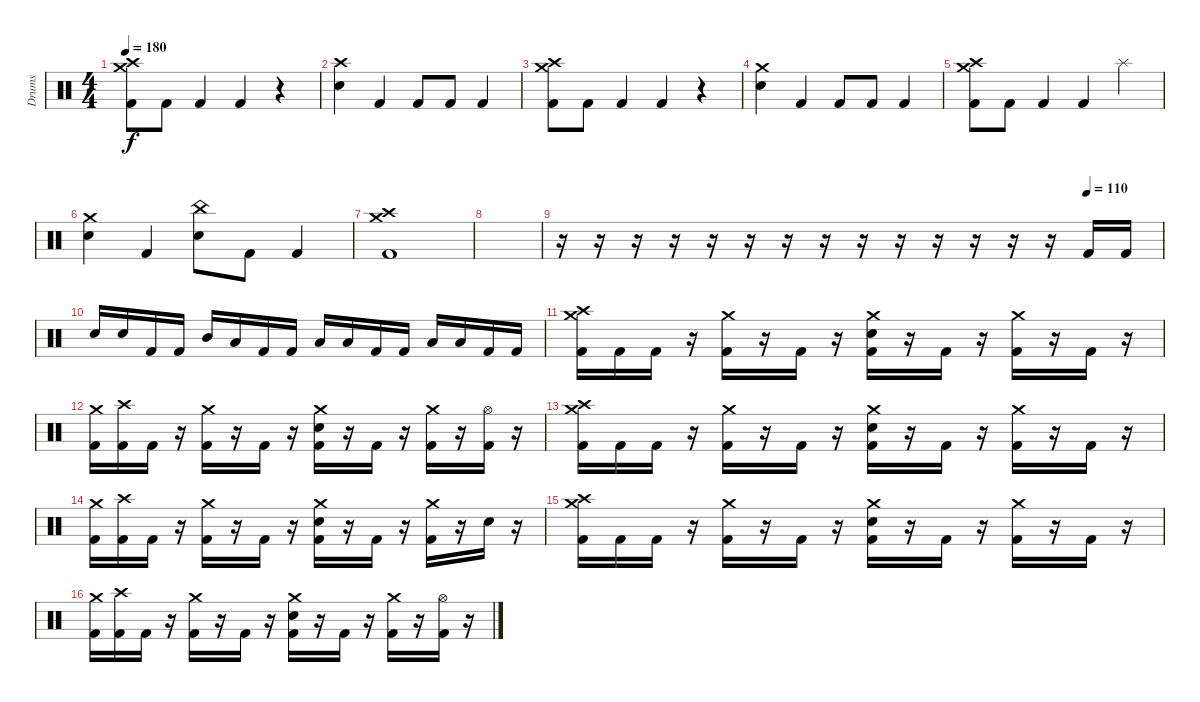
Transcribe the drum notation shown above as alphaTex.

\track ("Drums" "Drums") {instrument percussion}
\staff {score}
\articulation defaults
\ts (4 4)
\tempo 180
\clef neutral
\ks c
("Crash high (hit)" "Crash medium (hit)" "Kick (hit) 2").8{dy f} "Kick (hit) 2".8 "Kick (hit) 2".4 "Kick (hit) 2".4 r.4 |
("Crash high (hit)" "Electric Snare (hit)").4 "Kick (hit) 2".4 "Kick (hit) 2".8 "Kick (hit) 2".8 "Kick (hit) 2".4 |
("Crash high (hit)" "Crash medium (hit)" "Kick (hit) 2").8 "Kick (hit) 2".8 "Kick (hit) 2".4 "Kick (hit) 2".4 r.4 |
("Crash medium (hit)" "Electric Snare (hit)").4 "Kick (hit) 2".4 "Kick (hit) 2".8 "Kick (hit) 2".8 "Kick (hit) 2".4 |
("Crash high (hit)" "Crash medium (hit)" "Kick (hit) 2").8 "Kick (hit) 2".8 "Kick (hit) 2".4 "Kick (hit) 2".4 "Splash (hit)".4 |
("Crash medium (hit)" "Electric Snare (hit)").4 "Kick (hit) 2".4 ("China (hit)" "Electric Snare (hit)").8 "Kick (hit) 2".8 "Kick (hit) 2".4 |
("Crash high (hit)" "Crash medium (hit)" "Kick (hit) 2").1 |
|
\tempo (110 0.875)
r.16 r.16 r.16 r.16 r.16 r.16 r.16 r.16 r.16 r.16 r.16 r.16 r.16 r.16 "Kick (hit) 2".16 "Kick (hit) 2".16 |
"Electric Snare (hit)".16 "Electric Snare (hit)".16 "Kick (hit) 2".16 "Kick (hit) 2".16 "Mid Tom (hit)".16 "Low Floor Tom (hit)".16 "Kick (hit) 2".16 "Kick (hit) 2".16 "Low Tom (hit)".16 "Low Floor Tom (hit)".16 "Kick (hit) 2".16 "Kick (hit) 2".16 "Low Tom (hit)".16 "Low Floor Tom (hit)".16 "Kick (hit) 2".16 "Kick (hit) 2".16 |
("Crash high (hit)" "Crash medium (hit)" "Kick (hit) 2").16 "Kick (hit) 2".16 "Kick (hit) 2".16 r.16 ("Crash medium (hit)" "Kick (hit) 2").16 r.16 "Kick (hit) 2".16 r.16 ("Crash medium (hit)" "Electric Snare (hit)" "Kick (hit) 2").16 r.16 "Kick (hit) 2".16 r.16 ("Crash medium (hit)" "Kick (hit) 2").16 r.16 "Kick (hit) 2".16 r.16 |
("Crash medium (hit)" "Kick (hit) 2").16 ("Crash high (hit)" "Kick (hit) 2").16 "Kick (hit) 2".16 r.16 ("Crash medium (hit)" "Kick (hit) 2").16 r.16 "Kick (hit) 2".16 r.16 ("Crash medium (hit)" "Electric Snare (hit)" "Kick (hit) 2").16 r.16 "Kick (hit) 2".16 r.16 ("Crash medium (hit)" "Kick (hit) 2").16 r.16 ("Hi-Hat (open)" "Kick (hit) 2").16 r.16 |
("Crash high (hit)" "Crash medium (hit)" "Kick (hit) 2").16 "Kick (hit) 2".16 "Kick (hit) 2".16 r.16 ("Crash medium (hit)" "Kick (hit) 2").16 r.16 "Kick (hit) 2".16 r.16 ("Crash medium (hit)" "Electric Snare (hit)" "Kick (hit) 2").16 r.16 "Kick (hit) 2".16 r.16 ("Crash medium (hit)" "Kick (hit) 2").16 r.16 "Kick (hit) 2".16 r.16 |
("Crash medium (hit)" "Kick (hit) 2").16 ("Crash high (hit)" "Kick (hit) 2").16 "Kick (hit) 2".16 r.16 ("Crash medium (hit)" "Kick (hit) 2").16 r.16 "Kick (hit) 2".16 r.16 ("Crash medium (hit)" "Electric Snare (hit)" "Kick (hit) 2").16 r.16 "Kick (hit) 2".16 r.16 ("Crash medium (hit)" "Kick (hit) 2").16 r.16 "Electric Snare (hit)".16 r.16 |
("Crash high (hit)" "Crash medium (hit)" "Kick (hit) 2").16 "Kick (hit) 2".16 "Kick (hit) 2".16 r.16 ("Crash medium (hit)" "Kick (hit) 2").16 r.16 "Kick (hit) 2".16 r.16 ("Crash medium (hit)" "Electric Snare (hit)" "Kick (hit) 2").16 r.16 "Kick (hit) 2".16 r.16 ("Crash medium (hit)" "Kick (hit) 2").16 r.16 "Kick (hit) 2".16 r.16 |
("Crash medium (hit)" "Kick (hit) 2").16 ("Crash high (hit)" "Kick (hit) 2").16 "Kick (hit) 2".16 r.16 ("Crash medium (hit)" "Kick (hit) 2").16 r.16 "Kick (hit) 2".16 r.16 ("Crash medium (hit)" "Electric Snare (hit)" "Kick (hit) 2").16 r.16 "Kick (hit) 2".16 r.16 ("Crash medium (hit)" "Kick (hit) 2").16 r.16 ("Hi-Hat (open)" "Kick (hit) 2").16 r.16
